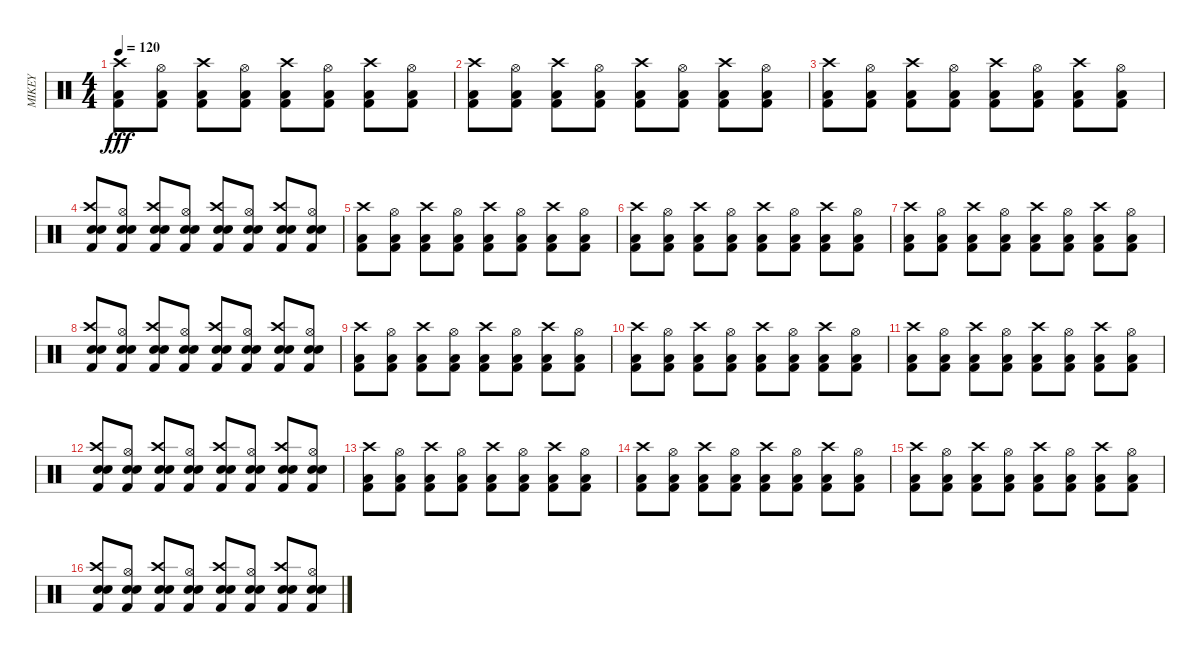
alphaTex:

\track ("MIKEY" "MIKEY") {instrument percussion}
\staff {score}
\articulation defaults
\ts (4 4)
\tempo 120
\clef neutral
\ks c
("Low Floor Tom (hit)" "Kick (hit) 2" "Crash high (hit)").8{dy fff} ("Low Floor Tom (hit)" "Hi-Hat (open)" "Kick (hit) 2").8 ("Low Floor Tom (hit)" "Kick (hit) 2" "Crash high (hit)").8 ("Low Floor Tom (hit)" "Hi-Hat (open)" "Kick (hit) 2").8 ("Low Floor Tom (hit)" "Kick (hit) 2" "Crash high (hit)").8 ("Low Floor Tom (hit)" "Hi-Hat (open)" "Kick (hit) 2").8 ("Low Floor Tom (hit)" "Kick (hit) 2" "Crash high (hit)").8 ("Low Floor Tom (hit)" "Hi-Hat (open)" "Kick (hit) 2").8 |
("Low Floor Tom (hit)" "Kick (hit) 2" "Crash high (hit)").8 ("Low Floor Tom (hit)" "Hi-Hat (open)" "Kick (hit) 2").8 ("Low Floor Tom (hit)" "Kick (hit) 2" "Crash high (hit)").8 ("Low Floor Tom (hit)" "Hi-Hat (open)" "Kick (hit) 2").8 ("Low Floor Tom (hit)" "Kick (hit) 2" "Crash high (hit)").8 ("Low Floor Tom (hit)" "Hi-Hat (open)" "Kick (hit) 2").8 ("Low Floor Tom (hit)" "Kick (hit) 2" "Crash high (hit)").8 ("Low Floor Tom (hit)" "Hi-Hat (open)" "Kick (hit) 2").8 |
("Low Floor Tom (hit)" "Kick (hit) 2" "Crash high (hit)").8 ("Low Floor Tom (hit)" "Hi-Hat (open)" "Kick (hit) 2").8 ("Low Floor Tom (hit)" "Kick (hit) 2" "Crash high (hit)").8 ("Low Floor Tom (hit)" "Hi-Hat (open)" "Kick (hit) 2").8 ("Low Floor Tom (hit)" "Kick (hit) 2" "Crash high (hit)").8 ("Low Floor Tom (hit)" "Hi-Hat (open)" "Kick (hit) 2").8 ("Low Floor Tom (hit)" "Kick (hit) 2" "Crash high (hit)").8 ("Low Floor Tom (hit)" "Hi-Hat (open)" "Kick (hit) 2").8 |
("Electric Snare (hit)" "Kick (hit) 2" "Electric Snare (hit)" "Crash high (hit)").8 ("Electric Snare (hit)" "Kick (hit) 2" "Hi-Hat (open)" "Electric Snare (hit)").8 ("Electric Snare (hit)" "Kick (hit) 2" "Electric Snare (hit)" "Crash high (hit)").8 ("Electric Snare (hit)" "Kick (hit) 2" "Hi-Hat (open)" "Electric Snare (hit)").8 ("Electric Snare (hit)" "Kick (hit) 2" "Electric Snare (hit)" "Crash high (hit)").8 ("Electric Snare (hit)" "Kick (hit) 2" "Hi-Hat (open)" "Electric Snare (hit)").8 ("Electric Snare (hit)" "Kick (hit) 2" "Electric Snare (hit)" "Crash high (hit)").8 ("Electric Snare (hit)" "Kick (hit) 2" "Hi-Hat (open)" "Electric Snare (hit)").8 |
("Low Floor Tom (hit)" "Kick (hit) 2" "Crash high (hit)").8 ("Low Floor Tom (hit)" "Hi-Hat (open)" "Kick (hit) 2").8 ("Low Floor Tom (hit)" "Kick (hit) 2" "Crash high (hit)").8 ("Low Floor Tom (hit)" "Hi-Hat (open)" "Kick (hit) 2").8 ("Low Floor Tom (hit)" "Kick (hit) 2" "Crash high (hit)").8 ("Low Floor Tom (hit)" "Hi-Hat (open)" "Kick (hit) 2").8 ("Low Floor Tom (hit)" "Kick (hit) 2" "Crash high (hit)").8 ("Low Floor Tom (hit)" "Hi-Hat (open)" "Kick (hit) 2").8 |
("Low Floor Tom (hit)" "Kick (hit) 2" "Crash high (hit)").8 ("Low Floor Tom (hit)" "Hi-Hat (open)" "Kick (hit) 2").8 ("Low Floor Tom (hit)" "Kick (hit) 2" "Crash high (hit)").8 ("Low Floor Tom (hit)" "Hi-Hat (open)" "Kick (hit) 2").8 ("Low Floor Tom (hit)" "Kick (hit) 2" "Crash high (hit)").8 ("Low Floor Tom (hit)" "Hi-Hat (open)" "Kick (hit) 2").8 ("Low Floor Tom (hit)" "Kick (hit) 2" "Crash high (hit)").8 ("Low Floor Tom (hit)" "Hi-Hat (open)" "Kick (hit) 2").8 |
("Low Floor Tom (hit)" "Kick (hit) 2" "Crash high (hit)").8 ("Low Floor Tom (hit)" "Hi-Hat (open)" "Kick (hit) 2").8 ("Low Floor Tom (hit)" "Kick (hit) 2" "Crash high (hit)").8 ("Low Floor Tom (hit)" "Hi-Hat (open)" "Kick (hit) 2").8 ("Low Floor Tom (hit)" "Kick (hit) 2" "Crash high (hit)").8 ("Low Floor Tom (hit)" "Hi-Hat (open)" "Kick (hit) 2").8 ("Low Floor Tom (hit)" "Kick (hit) 2" "Crash high (hit)").8 ("Low Floor Tom (hit)" "Hi-Hat (open)" "Kick (hit) 2").8 |
("Electric Snare (hit)" "Kick (hit) 2" "Electric Snare (hit)" "Crash high (hit)").8 ("Electric Snare (hit)" "Kick (hit) 2" "Hi-Hat (open)" "Electric Snare (hit)").8 ("Electric Snare (hit)" "Kick (hit) 2" "Electric Snare (hit)" "Crash high (hit)").8 ("Electric Snare (hit)" "Kick (hit) 2" "Hi-Hat (open)" "Electric Snare (hit)").8 ("Electric Snare (hit)" "Kick (hit) 2" "Electric Snare (hit)" "Crash high (hit)").8 ("Electric Snare (hit)" "Kick (hit) 2" "Hi-Hat (open)" "Electric Snare (hit)").8 ("Electric Snare (hit)" "Kick (hit) 2" "Electric Snare (hit)" "Crash high (hit)").8 ("Electric Snare (hit)" "Kick (hit) 2" "Hi-Hat (open)" "Electric Snare (hit)").8 |
("Low Floor Tom (hit)" "Kick (hit) 2" "Crash high (hit)").8 ("Low Floor Tom (hit)" "Hi-Hat (open)" "Kick (hit) 2").8 ("Low Floor Tom (hit)" "Kick (hit) 2" "Crash high (hit)").8 ("Low Floor Tom (hit)" "Hi-Hat (open)" "Kick (hit) 2").8 ("Low Floor Tom (hit)" "Kick (hit) 2" "Crash high (hit)").8 ("Low Floor Tom (hit)" "Hi-Hat (open)" "Kick (hit) 2").8 ("Low Floor Tom (hit)" "Kick (hit) 2" "Crash high (hit)").8 ("Low Floor Tom (hit)" "Hi-Hat (open)" "Kick (hit) 2").8 |
("Low Floor Tom (hit)" "Kick (hit) 2" "Crash high (hit)").8 ("Low Floor Tom (hit)" "Hi-Hat (open)" "Kick (hit) 2").8 ("Low Floor Tom (hit)" "Kick (hit) 2" "Crash high (hit)").8 ("Low Floor Tom (hit)" "Hi-Hat (open)" "Kick (hit) 2").8 ("Low Floor Tom (hit)" "Kick (hit) 2" "Crash high (hit)").8 ("Low Floor Tom (hit)" "Hi-Hat (open)" "Kick (hit) 2").8 ("Low Floor Tom (hit)" "Kick (hit) 2" "Crash high (hit)").8 ("Low Floor Tom (hit)" "Hi-Hat (open)" "Kick (hit) 2").8 |
("Low Floor Tom (hit)" "Kick (hit) 2" "Crash high (hit)").8 ("Low Floor Tom (hit)" "Hi-Hat (open)" "Kick (hit) 2").8 ("Low Floor Tom (hit)" "Kick (hit) 2" "Crash high (hit)").8 ("Low Floor Tom (hit)" "Hi-Hat (open)" "Kick (hit) 2").8 ("Low Floor Tom (hit)" "Kick (hit) 2" "Crash high (hit)").8 ("Low Floor Tom (hit)" "Hi-Hat (open)" "Kick (hit) 2").8 ("Low Floor Tom (hit)" "Kick (hit) 2" "Crash high (hit)").8 ("Low Floor Tom (hit)" "Hi-Hat (open)" "Kick (hit) 2").8 |
("Electric Snare (hit)" "Kick (hit) 2" "Electric Snare (hit)" "Crash high (hit)").8 ("Electric Snare (hit)" "Kick (hit) 2" "Hi-Hat (open)" "Electric Snare (hit)").8 ("Electric Snare (hit)" "Kick (hit) 2" "Electric Snare (hit)" "Crash high (hit)").8 ("Electric Snare (hit)" "Kick (hit) 2" "Hi-Hat (open)" "Electric Snare (hit)").8 ("Electric Snare (hit)" "Kick (hit) 2" "Electric Snare (hit)" "Crash high (hit)").8 ("Electric Snare (hit)" "Kick (hit) 2" "Hi-Hat (open)" "Electric Snare (hit)").8 ("Electric Snare (hit)" "Kick (hit) 2" "Electric Snare (hit)" "Crash high (hit)").8 ("Electric Snare (hit)" "Kick (hit) 2" "Hi-Hat (open)" "Electric Snare (hit)").8 |
("Low Floor Tom (hit)" "Kick (hit) 2" "Crash high (hit)").8 ("Low Floor Tom (hit)" "Hi-Hat (open)" "Kick (hit) 2").8 ("Low Floor Tom (hit)" "Kick (hit) 2" "Crash high (hit)").8 ("Low Floor Tom (hit)" "Hi-Hat (open)" "Kick (hit) 2").8 ("Low Floor Tom (hit)" "Kick (hit) 2" "Crash high (hit)").8 ("Low Floor Tom (hit)" "Hi-Hat (open)" "Kick (hit) 2").8 ("Low Floor Tom (hit)" "Kick (hit) 2" "Crash high (hit)").8 ("Low Floor Tom (hit)" "Hi-Hat (open)" "Kick (hit) 2").8 |
("Low Floor Tom (hit)" "Kick (hit) 2" "Crash high (hit)").8 ("Low Floor Tom (hit)" "Hi-Hat (open)" "Kick (hit) 2").8 ("Low Floor Tom (hit)" "Kick (hit) 2" "Crash high (hit)").8 ("Low Floor Tom (hit)" "Hi-Hat (open)" "Kick (hit) 2").8 ("Low Floor Tom (hit)" "Kick (hit) 2" "Crash high (hit)").8 ("Low Floor Tom (hit)" "Hi-Hat (open)" "Kick (hit) 2").8 ("Low Floor Tom (hit)" "Kick (hit) 2" "Crash high (hit)").8 ("Low Floor Tom (hit)" "Hi-Hat (open)" "Kick (hit) 2").8 |
("Low Floor Tom (hit)" "Kick (hit) 2" "Crash high (hit)").8 ("Low Floor Tom (hit)" "Hi-Hat (open)" "Kick (hit) 2").8 ("Low Floor Tom (hit)" "Kick (hit) 2" "Crash high (hit)").8 ("Low Floor Tom (hit)" "Hi-Hat (open)" "Kick (hit) 2").8 ("Low Floor Tom (hit)" "Kick (hit) 2" "Crash high (hit)").8 ("Low Floor Tom (hit)" "Hi-Hat (open)" "Kick (hit) 2").8 ("Low Floor Tom (hit)" "Kick (hit) 2" "Crash high (hit)").8 ("Low Floor Tom (hit)" "Hi-Hat (open)" "Kick (hit) 2").8 |
("Electric Snare (hit)" "Kick (hit) 2" "Electric Snare (hit)" "Crash high (hit)").8 ("Electric Snare (hit)" "Kick (hit) 2" "Hi-Hat (open)" "Electric Snare (hit)").8 ("Electric Snare (hit)" "Kick (hit) 2" "Electric Snare (hit)" "Crash high (hit)").8 ("Electric Snare (hit)" "Kick (hit) 2" "Hi-Hat (open)" "Electric Snare (hit)").8 ("Electric Snare (hit)" "Kick (hit) 2" "Electric Snare (hit)" "Crash high (hit)").8 ("Electric Snare (hit)" "Kick (hit) 2" "Hi-Hat (open)" "Electric Snare (hit)").8 ("Electric Snare (hit)" "Kick (hit) 2" "Electric Snare (hit)" "Crash high (hit)").8 ("Electric Snare (hit)" "Kick (hit) 2" "Hi-Hat (open)" "Electric Snare (hit)").8
